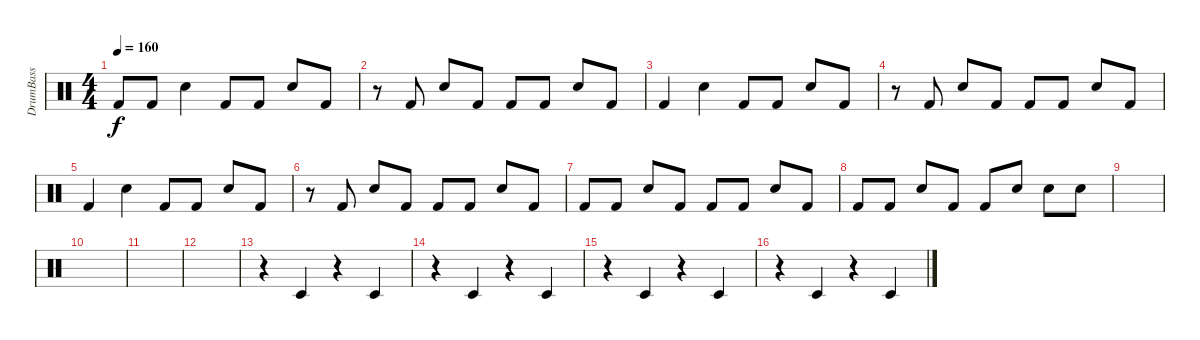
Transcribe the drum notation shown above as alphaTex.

\track ("DrumBass" "DrumBass") {instrument percussion}
\staff {score}
\articulation defaults
\ts (4 4)
\tempo 160
\clef neutral
\ks c "Kick (hit) 2".8{dy f} "Kick (hit) 2".8 "Snare (hit) 2".4 "Kick (hit) 2".8 "Kick (hit) 2".8 "Snare (hit) 2".8 "Kick (hit) 2".8
|
r.8 "Kick (hit) 2".8 "Snare (hit) 2".8 "Kick (hit) 2".8 "Kick (hit) 2".8 "Kick (hit) 2".8 "Snare (hit) 2".8 "Kick (hit) 2".8 |
"Kick (hit) 2".4 "Snare (hit) 2".4 "Kick (hit) 2".8 "Kick (hit) 2".8 "Snare (hit) 2".8 "Kick (hit) 2".8 |
r.8 "Kick (hit) 2".8 "Snare (hit) 2".8 "Kick (hit) 2".8 "Kick (hit) 2".8 "Kick (hit) 2".8 "Snare (hit) 2".8 "Kick (hit) 2".8 |
"Kick (hit) 2".4 "Snare (hit) 2".4 "Kick (hit) 2".8 "Kick (hit) 2".8 "Snare (hit) 2".8 "Kick (hit) 2".8 |
r.8 "Kick (hit) 2".8 "Snare (hit) 2".8 "Kick (hit) 2".8 "Kick (hit) 2".8 "Kick (hit) 2".8 "Snare (hit) 2".8 "Kick (hit) 2".8 |
"Kick (hit) 2".8 "Kick (hit) 2".8 "Snare (hit) 2".8 "Kick (hit) 2".8 "Kick (hit) 2".8 "Kick (hit) 2".8 "Snare (hit) 2".8 "Kick (hit) 2".8 |
"Kick (hit) 2".8 "Kick (hit) 2".8 "Snare (hit) 2".8 "Kick (hit) 2".8 "Kick (hit) 2".8 "Snare (hit) 2"{tr (38 16)}.8 "Snare (hit) 2"{tr (38 16)}.8 "Snare (hit) 2"{tr (38 16)}.8 |
|
|
|
|
r.4 "Timbale low (hit)".4{volume 3} r.4 "Timbale low (hit)".4{volume 5} |
r.4 "Timbale low (hit)".4{volume 8} r.4 "Timbale low (hit)".4{volume 9} |
r.4 "Timbale low (hit)".4{volume 12} r.4 "Timbale low (hit)".4{volume 14} |
r.4 "Timbale low (hit)".4 r.4 "Timbale low (hit)".4
